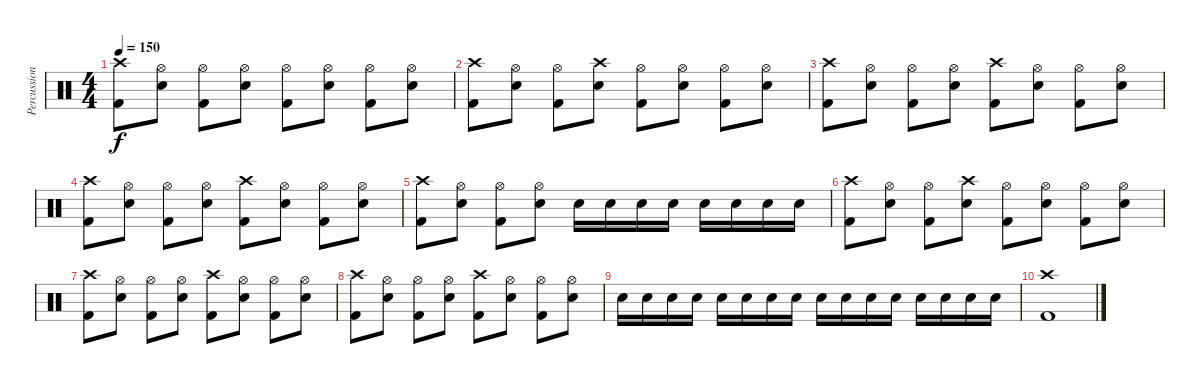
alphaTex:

\track ("Percussion" "Percussion") {instrument percussion}
\staff {score}
\articulation defaults
\ts (4 4)
\tempo 150
\clef neutral
\ks c
("Crash high (hit)" "Kick (hit) 2").8{dy f} ("Hi-Hat (open)" "Electric Snare (hit)").8 ("Hi-Hat (open)" "Kick (hit) 2").8 ("Hi-Hat (open)" "Electric Snare (hit)").8 ("Hi-Hat (open)" "Kick (hit) 2").8 ("Hi-Hat (open)" "Electric Snare (hit)").8 ("Hi-Hat (open)" "Kick (hit) 2").8 ("Hi-Hat (open)" "Electric Snare (hit)").8 |
("Crash high (hit)" "Kick (hit) 2").8 ("Hi-Hat (open)" "Electric Snare (hit)").8 ("Hi-Hat (open)" "Kick (hit) 2").8 ("Crash high (hit)" "Electric Snare (hit)").8 ("Hi-Hat (open)" "Kick (hit) 2").8 ("Hi-Hat (open)" "Electric Snare (hit)").8 ("Hi-Hat (open)" "Kick (hit) 2").8 ("Hi-Hat (open)" "Electric Snare (hit)").8 |
("Crash high (hit)" "Kick (hit) 2").8 ("Hi-Hat (open)" "Electric Snare (hit)").8 ("Hi-Hat (open)" "Kick (hit) 2").8 ("Hi-Hat (open)" "Electric Snare (hit)").8 ("Crash high (hit)" "Kick (hit) 2").8 ("Hi-Hat (open)" "Electric Snare (hit)").8 ("Hi-Hat (open)" "Kick (hit) 2").8 ("Hi-Hat (open)" "Electric Snare (hit)").8 |
("Crash high (hit)" "Kick (hit) 2").8 ("Hi-Hat (open)" "Electric Snare (hit)").8 ("Hi-Hat (open)" "Kick (hit) 2").8 ("Hi-Hat (open)" "Electric Snare (hit)").8 ("Crash high (hit)" "Kick (hit) 2").8 ("Hi-Hat (open)" "Electric Snare (hit)").8 ("Hi-Hat (open)" "Kick (hit) 2").8 ("Hi-Hat (open)" "Electric Snare (hit)").8 |
("Crash high (hit)" "Kick (hit) 2").8 ("Hi-Hat (open)" "Electric Snare (hit)").8 ("Hi-Hat (open)" "Kick (hit) 2").8 ("Hi-Hat (open)" "Electric Snare (hit)").8 "Electric Snare (hit)".16 "Electric Snare (hit)".16 "Electric Snare (hit)".16 "Electric Snare (hit)".16 "Electric Snare (hit)".16 "Electric Snare (hit)".16 "Electric Snare (hit)".16 "Electric Snare (hit)".16 |
("Crash high (hit)" "Kick (hit) 2").8 ("Hi-Hat (open)" "Electric Snare (hit)").8 ("Hi-Hat (open)" "Kick (hit) 2").8 ("Crash high (hit)" "Electric Snare (hit)").8 ("Hi-Hat (open)" "Kick (hit) 2").8 ("Hi-Hat (open)" "Electric Snare (hit)").8 ("Hi-Hat (open)" "Kick (hit) 2").8 ("Hi-Hat (open)" "Electric Snare (hit)").8 |
("Crash high (hit)" "Kick (hit) 2").8 ("Hi-Hat (open)" "Electric Snare (hit)").8 ("Hi-Hat (open)" "Kick (hit) 2").8 ("Hi-Hat (open)" "Electric Snare (hit)").8 ("Crash high (hit)" "Kick (hit) 2").8 ("Hi-Hat (open)" "Electric Snare (hit)").8 ("Hi-Hat (open)" "Kick (hit) 2").8 ("Hi-Hat (open)" "Electric Snare (hit)").8 |
("Crash high (hit)" "Kick (hit) 2").8 ("Hi-Hat (open)" "Electric Snare (hit)").8 ("Hi-Hat (open)" "Kick (hit) 2").8 ("Hi-Hat (open)" "Electric Snare (hit)").8 ("Crash high (hit)" "Kick (hit) 2").8 ("Hi-Hat (open)" "Electric Snare (hit)").8 ("Hi-Hat (open)" "Kick (hit) 2").8 ("Hi-Hat (open)" "Electric Snare (hit)").8 |
"Electric Snare (hit)".16 "Electric Snare (hit)".16 "Electric Snare (hit)".16 "Electric Snare (hit)".16 "Electric Snare (hit)".16 "Electric Snare (hit)".16 "Electric Snare (hit)".16 "Electric Snare (hit)".16 "Electric Snare (hit)".16 "Electric Snare (hit)".16 "Electric Snare (hit)".16 "Electric Snare (hit)".16 "Electric Snare (hit)".16 "Electric Snare (hit)".16 "Electric Snare (hit)".16 "Electric Snare (hit)".16 |
("Crash high (hit)" "Kick (hit) 2").1
